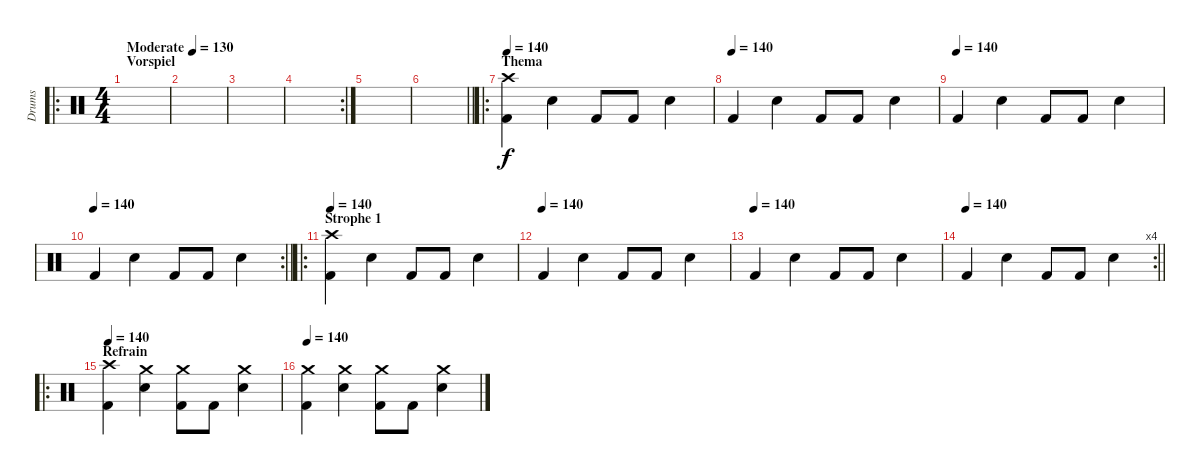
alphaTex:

\track ("Drums" "Drums") {instrument percussion}
\staff {score}
\articulation defaults
\ro
\ts (4 4)
\section ("" "Vorspiel")
\tempo (130 "Moderate")
\clef neutral
\ks c
|
|
|
\rc 2
|
|
\barLineRight lightlight
|
\ro
\section ("" "Thema")
\tempo 140
("Crash high (hit)" "Kick (hit) 2").4 "Snare (hit) 2".4 "Kick (hit) 2".8 "Kick (hit) 2".8 "Snare (hit) 2".4 |
\tempo (140)
"Kick (hit) 2".4 "Snare (hit) 2".4 "Kick (hit) 2".8 "Kick (hit) 2".8 "Snare (hit) 2".4 |
\tempo (140)
"Kick (hit) 2".4 "Snare (hit) 2".4 "Kick (hit) 2".8 "Kick (hit) 2".8 "Snare (hit) 2".4 |
\rc 2
\tempo 140
\barLineRight lightlight "Kick (hit) 2".4 "Snare (hit) 2".4 "Kick (hit) 2".8 "Kick (hit) 2".8 "Snare (hit) 2".4
|
\ro
\section ("" "Strophe 1")
\tempo 140
("Crash high (hit)" "Kick (hit) 2").4 "Snare (hit) 2".4 "Kick (hit) 2".8 "Kick (hit) 2".8 "Snare (hit) 2".4 |
\tempo (140)
"Kick (hit) 2".4 "Snare (hit) 2".4 "Kick (hit) 2".8 "Kick (hit) 2".8 "Snare (hit) 2".4 |
\tempo (140)
"Kick (hit) 2".4 "Snare (hit) 2".4 "Kick (hit) 2".8 "Kick (hit) 2".8 "Snare (hit) 2".4 |
\rc 4
\tempo 140
\barLineRight lightlight "Kick (hit) 2".4 "Snare (hit) 2".4 "Kick (hit) 2".8 "Kick (hit) 2".8 "Snare (hit) 2".4
|
\ro
\section ("" "Refrain")
\tempo 140
("Crash high (hit)" "Kick (hit) 2").4 ("Crash medium (hit)" "Snare (hit) 2").4 ("Crash medium (hit)" "Kick (hit) 2").8 "Kick (hit) 2".8 ("Crash medium (hit)" "Snare (hit) 2").4 |
\tempo 140
("Crash medium (hit)" "Kick (hit) 2").4 ("Crash medium (hit)" "Snare (hit) 2").4 ("Crash medium (hit)" "Kick (hit) 2").8 "Kick (hit) 2".8 ("Crash medium (hit)" "Snare (hit) 2").4
